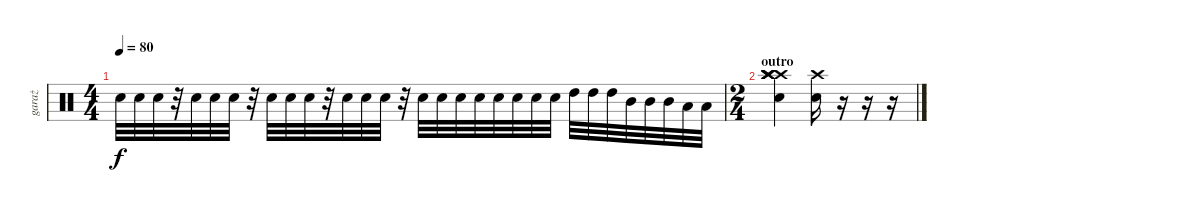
\track ("garaż" "garaż") {instrument percussion}
\staff {score}
\articulation defaults
\ts (4 4)
\tempo 80
\clef neutral
\ks c "Snare (hit) 2".32{dy f} "Snare (hit) 2".32 "Snare (hit) 2".32
r.32 "Snare (hit) 2".32 "Snare (hit) 2".32 "Snare (hit) 2".32 r.32 "Snare (hit) 2".32 "Snare (hit) 2".32 "Snare (hit) 2".32 r.32 "Snare (hit) 2".32 "Snare (hit) 2".32 "Snare (hit) 2".32 r.32 "Snare (hit) 2".32 "Snare (hit) 2".32 "Snare (hit) 2".32 "Snare (hit) 2".32 "Snare (hit) 2".32 "Snare (hit) 2".32 "Snare (hit) 2".32 "Snare (hit) 2".32 "High Tom (hit)".32 "High Tom (hit)".32 "High Tom (hit)".32 "Mid Tom (hit)".32 "Mid Tom (hit)".32 "Mid Tom (hit)".32 "Low Tom (hit)".32 "Low Tom (hit)".32 |
\ts (2 4)
\section ("" "outro")
("Crash high (hit)" "Crash high (hit)" "Crash high (hit)" "Snare (hit) 2" "Crash high (hit)" "Crash high (hit)").4 ("Crash high (hit)" "Snare (hit) 2").16 r.16 r.16 r.16
